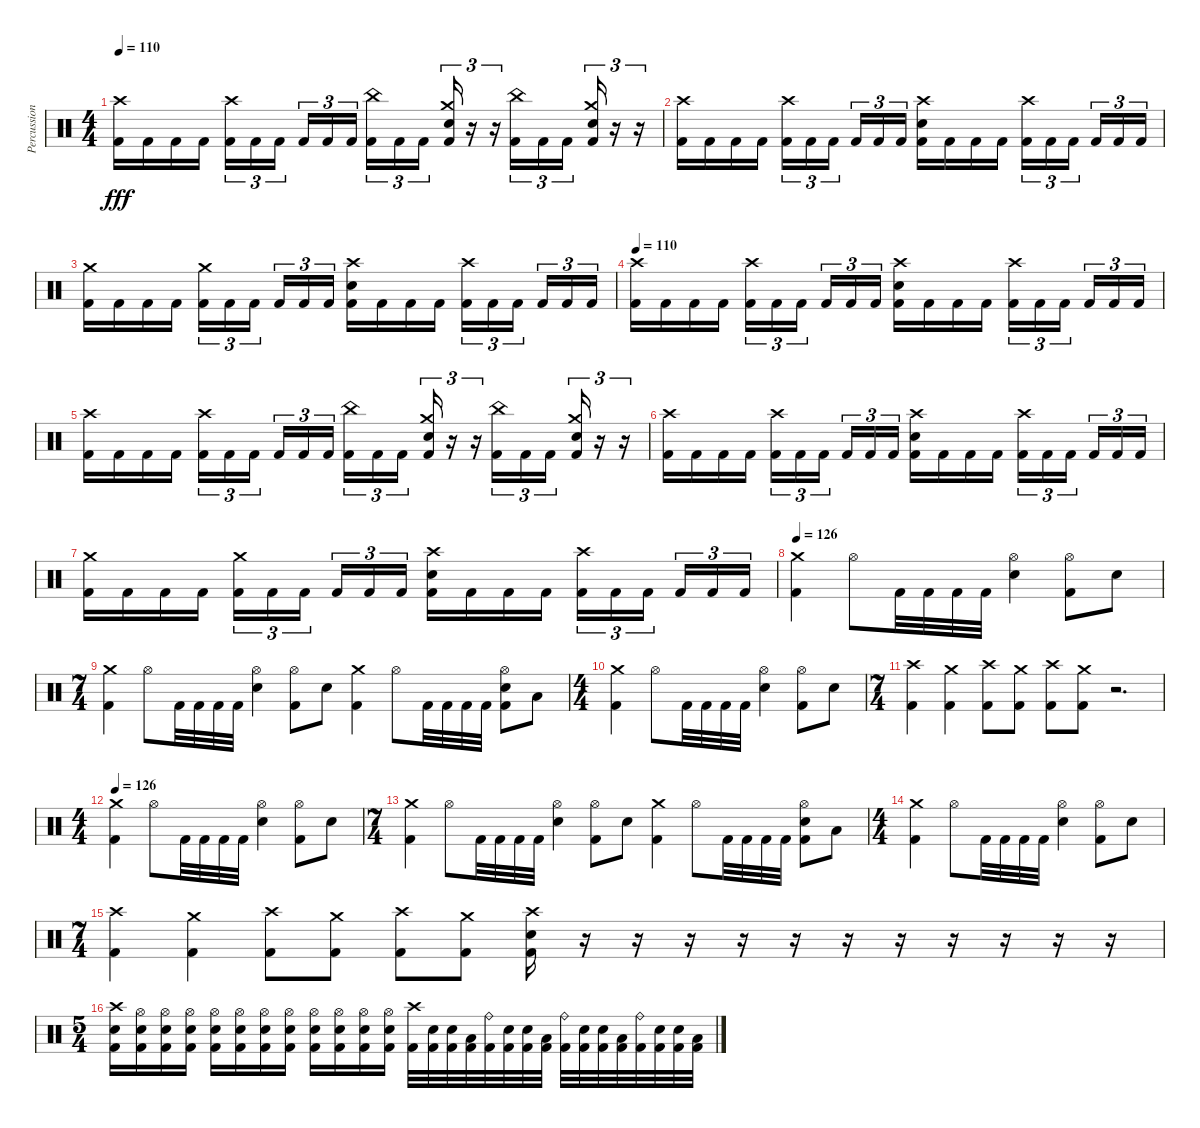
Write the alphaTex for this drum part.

\track ("Percussion" "Percussion") {instrument percussion}
\staff {score}
\articulation defaults
\ts (4 4)
\tempo 110
\clef neutral
\ks c
("Crash high (hit)" "Kick (hit) 2").16{dy fff} "Kick (hit) 2".16 "Kick (hit) 2".16 "Kick (hit) 2".16 ("Crash high (hit)" "Kick (hit) 2").16{tu (3 2)} "Kick (hit) 2".16{tu (3 2)} "Kick (hit) 2".16{tu (3 2) beam splitsecondary} "Kick (hit) 2".16{tu (3 2)} "Kick (hit) 2".16{tu (3 2)} "Kick (hit) 2".16{tu (3 2)} ("China (hit)" "Kick (hit) 2").16{tu (3 2)} "Kick (hit) 2".16{tu (3 2)} "Kick (hit) 2".16{tu (3 2) beam splitsecondary} ("Crash medium (hit)" "Electric Snare (hit)" "Kick (hit) 2").16{tu (3 2)} r.16{tu (3 2)} r.16{tu (3 2)} ("China (hit)" "Kick (hit) 2").16{tu (3 2)} "Kick (hit) 2".16{tu (3 2)} "Kick (hit) 2".16{tu (3 2) beam splitsecondary} ("Crash medium (hit)" "Electric Snare (hit)" "Kick (hit) 2").16{tu (3 2)} r.16{tu (3 2)} r.16{tu (3 2)} |
("Crash high (hit)" "Kick (hit) 2").16 "Kick (hit) 2".16 "Kick (hit) 2".16 "Kick (hit) 2".16 ("Crash high (hit)" "Kick (hit) 2").16{tu (3 2)} "Kick (hit) 2".16{tu (3 2)} "Kick (hit) 2".16{tu (3 2) beam splitsecondary} "Kick (hit) 2".16{tu (3 2)} "Kick (hit) 2".16{tu (3 2)} "Kick (hit) 2".16{tu (3 2)} ("Crash high (hit)" "Electric Snare (hit)" "Kick (hit) 2").16 "Kick (hit) 2".16 "Kick (hit) 2".16 "Kick (hit) 2".16 ("Crash high (hit)" "Kick (hit) 2").16{tu (3 2)} "Kick (hit) 2".16{tu (3 2)} "Kick (hit) 2".16{tu (3 2) beam splitsecondary} "Kick (hit) 2".16{tu (3 2)} "Kick (hit) 2".16{tu (3 2)} "Kick (hit) 2".16{tu (3 2)} |
("Crash medium (hit)" "Kick (hit) 2").16 "Kick (hit) 2".16 "Kick (hit) 2".16 "Kick (hit) 2".16 ("Crash medium (hit)" "Kick (hit) 2").16{tu (3 2)} "Kick (hit) 2".16{tu (3 2)} "Kick (hit) 2".16{tu (3 2) beam splitsecondary} "Kick (hit) 2".16{tu (3 2)} "Kick (hit) 2".16{tu (3 2)} "Kick (hit) 2".16{tu (3 2)} ("Crash high (hit)" "Electric Snare (hit)" "Kick (hit) 2").16 "Kick (hit) 2".16 "Kick (hit) 2".16 "Kick (hit) 2".16 ("Crash high (hit)" "Kick (hit) 2").16{tu (3 2)} "Kick (hit) 2".16{tu (3 2)} "Kick (hit) 2".16{tu (3 2) beam splitsecondary} "Kick (hit) 2".16{tu (3 2)} "Kick (hit) 2".16{tu (3 2)} "Kick (hit) 2".16{tu (3 2)} |
\tempo 110
("Crash high (hit)" "Kick (hit) 2").16 "Kick (hit) 2".16 "Kick (hit) 2".16 "Kick (hit) 2".16 ("Crash high (hit)" "Kick (hit) 2").16{tu (3 2)} "Kick (hit) 2".16{tu (3 2)} "Kick (hit) 2".16{tu (3 2) beam splitsecondary} "Kick (hit) 2".16{tu (3 2)} "Kick (hit) 2".16{tu (3 2)} "Kick (hit) 2".16{tu (3 2)} ("Crash high (hit)" "Electric Snare (hit)" "Kick (hit) 2").16 "Kick (hit) 2".16 "Kick (hit) 2".16 "Kick (hit) 2".16 ("Crash high (hit)" "Kick (hit) 2").16{tu (3 2)} "Kick (hit) 2".16{tu (3 2)} "Kick (hit) 2".16{tu (3 2) beam splitsecondary} "Kick (hit) 2".16{tu (3 2)} "Kick (hit) 2".16{tu (3 2)} "Kick (hit) 2".16{tu (3 2)} |
("Crash high (hit)" "Kick (hit) 2").16 "Kick (hit) 2".16 "Kick (hit) 2".16 "Kick (hit) 2".16 ("Crash high (hit)" "Kick (hit) 2").16{tu (3 2)} "Kick (hit) 2".16{tu (3 2)} "Kick (hit) 2".16{tu (3 2) beam splitsecondary} "Kick (hit) 2".16{tu (3 2)} "Kick (hit) 2".16{tu (3 2)} "Kick (hit) 2".16{tu (3 2)} ("China (hit)" "Kick (hit) 2").16{tu (3 2)} "Kick (hit) 2".16{tu (3 2)} "Kick (hit) 2".16{tu (3 2) beam splitsecondary} ("Crash medium (hit)" "Electric Snare (hit)" "Kick (hit) 2").16{tu (3 2)} r.16{tu (3 2)} r.16{tu (3 2)} ("China (hit)" "Kick (hit) 2").16{tu (3 2)} "Kick (hit) 2".16{tu (3 2)} "Kick (hit) 2".16{tu (3 2) beam splitsecondary} ("Crash medium (hit)" "Electric Snare (hit)" "Kick (hit) 2").16{tu (3 2)} r.16{tu (3 2)} r.16{tu (3 2)} |
("Crash high (hit)" "Kick (hit) 2").16 "Kick (hit) 2".16 "Kick (hit) 2".16 "Kick (hit) 2".16 ("Crash high (hit)" "Kick (hit) 2").16{tu (3 2)} "Kick (hit) 2".16{tu (3 2)} "Kick (hit) 2".16{tu (3 2) beam splitsecondary} "Kick (hit) 2".16{tu (3 2)} "Kick (hit) 2".16{tu (3 2)} "Kick (hit) 2".16{tu (3 2)} ("Crash high (hit)" "Electric Snare (hit)" "Kick (hit) 2").16 "Kick (hit) 2".16 "Kick (hit) 2".16 "Kick (hit) 2".16 ("Crash high (hit)" "Kick (hit) 2").16{tu (3 2)} "Kick (hit) 2".16{tu (3 2)} "Kick (hit) 2".16{tu (3 2) beam splitsecondary} "Kick (hit) 2".16{tu (3 2)} "Kick (hit) 2".16{tu (3 2)} "Kick (hit) 2".16{tu (3 2)} |
("Crash medium (hit)" "Kick (hit) 2").16 "Kick (hit) 2".16 "Kick (hit) 2".16 "Kick (hit) 2".16 ("Crash medium (hit)" "Kick (hit) 2").16{tu (3 2)} "Kick (hit) 2".16{tu (3 2)} "Kick (hit) 2".16{tu (3 2) beam splitsecondary} "Kick (hit) 2".16{tu (3 2)} "Kick (hit) 2".16{tu (3 2)} "Kick (hit) 2".16{tu (3 2)} ("Crash high (hit)" "Electric Snare (hit)" "Kick (hit) 2").16 "Kick (hit) 2".16 "Kick (hit) 2".16 "Kick (hit) 2".16 ("Crash high (hit)" "Kick (hit) 2").16{tu (3 2)} "Kick (hit) 2".16{tu (3 2)} "Kick (hit) 2".16{tu (3 2) beam splitsecondary} "Kick (hit) 2".16{tu (3 2)} "Kick (hit) 2".16{tu (3 2)} "Kick (hit) 2".16{tu (3 2)} |
\tempo 126
("Kick (hit) 2" "Crash medium (hit)").4 "Hi-Hat (open)".8 "Kick (hit) 2".32 "Kick (hit) 2".32 "Kick (hit) 2".32 "Kick (hit) 2".32 ("Electric Snare (hit)" "Hi-Hat (open)").4 ("Kick (hit) 2" "Hi-Hat (open)").8 "Electric Snare (hit)".8 |
\ts (7 4)
("Kick (hit) 2" "Crash medium (hit)").4 "Hi-Hat (open)".8 "Kick (hit) 2".32 "Kick (hit) 2".32 "Kick (hit) 2".32 "Kick (hit) 2".32 ("Electric Snare (hit)" "Hi-Hat (open)").4 ("Kick (hit) 2" "Hi-Hat (open)").8 "Electric Snare (hit)".8 ("Kick (hit) 2" "Crash medium (hit)").4 "Hi-Hat (open)".8 "Kick (hit) 2".32 "Kick (hit) 2".32 "Kick (hit) 2".32 "Kick (hit) 2".32 ("Kick (hit) 2" "Electric Snare (hit)" "Hi-Hat (open)").8 "Low Tom (hit)".8 |
\ts (4 4)
("Kick (hit) 2" "Crash medium (hit)").4 "Hi-Hat (open)".8 "Kick (hit) 2".32 "Kick (hit) 2".32 "Kick (hit) 2".32 "Kick (hit) 2".32 ("Electric Snare (hit)" "Hi-Hat (open)").4 ("Kick (hit) 2" "Hi-Hat (open)").8 "Electric Snare (hit)".8 |
\ts (7 4)
("Crash high (hit)" "Kick (hit) 2").4 ("Crash medium (hit)" "Kick (hit) 2").4 ("Crash high (hit)" "Kick (hit) 2").8 ("Crash medium (hit)" "Kick (hit) 2").8 ("Crash high (hit)" "Kick (hit) 2").8 ("Crash medium (hit)" "Kick (hit) 2").8 r.2{d} |
\ts (4 4)
\tempo 126
("Kick (hit) 2" "Crash medium (hit)").4 "Hi-Hat (open)".8 "Kick (hit) 2".32 "Kick (hit) 2".32 "Kick (hit) 2".32 "Kick (hit) 2".32 ("Electric Snare (hit)" "Hi-Hat (open)").4 ("Kick (hit) 2" "Hi-Hat (open)").8 "Electric Snare (hit)".8 |
\ts (7 4)
("Kick (hit) 2" "Crash medium (hit)").4 "Hi-Hat (open)".8 "Kick (hit) 2".32 "Kick (hit) 2".32 "Kick (hit) 2".32 "Kick (hit) 2".32 ("Electric Snare (hit)" "Hi-Hat (open)").4 ("Kick (hit) 2" "Hi-Hat (open)").8 "Electric Snare (hit)".8 ("Kick (hit) 2" "Crash medium (hit)").4 "Hi-Hat (open)".8 "Kick (hit) 2".32 "Kick (hit) 2".32 "Kick (hit) 2".32 "Kick (hit) 2".32 ("Kick (hit) 2" "Electric Snare (hit)" "Hi-Hat (open)").8 "Low Tom (hit)".8 |
\ts (4 4)
("Kick (hit) 2" "Crash medium (hit)").4 "Hi-Hat (open)".8 "Kick (hit) 2".32 "Kick (hit) 2".32 "Kick (hit) 2".32 "Kick (hit) 2".32 ("Electric Snare (hit)" "Hi-Hat (open)").4 ("Kick (hit) 2" "Hi-Hat (open)").8 "Electric Snare (hit)".8 |
\ts (7 4)
("Crash high (hit)" "Kick (hit) 2").4 ("Crash medium (hit)" "Kick (hit) 2").4 ("Crash high (hit)" "Kick (hit) 2").8 ("Crash medium (hit)" "Kick (hit) 2").8 ("Crash high (hit)" "Kick (hit) 2").8 ("Crash medium (hit)" "Kick (hit) 2").8 ("Electric Snare (hit)" "Crash high (hit)" "Kick (hit) 2").16 r.16 r.16 r.16 r.16 r.16 r.16 r.16 r.16 r.16 r.16 r.16 |
\ts (5 4)
("Electric Snare (hit)" "Crash high (hit)" "Kick (hit) 2").16 ("Electric Snare (hit)" "Hi-Hat (open)" "Kick (hit) 2").16 ("Electric Snare (hit)" "Hi-Hat (open)" "Kick (hit) 2").16 ("Electric Snare (hit)" "Hi-Hat (open)" "Kick (hit) 2").16 ("Electric Snare (hit)" "Hi-Hat (open)" "Kick (hit) 2").16 ("Electric Snare (hit)" "Hi-Hat (open)" "Kick (hit) 2").16 ("Electric Snare (hit)" "Hi-Hat (open)" "Kick (hit) 2").16 ("Electric Snare (hit)" "Hi-Hat (open)" "Kick (hit) 2").16 ("Electric Snare (hit)" "Hi-Hat (open)" "Kick (hit) 2").16 ("Electric Snare (hit)" "Hi-Hat (open)" "Kick (hit) 2").16 ("Electric Snare (hit)" "Hi-Hat (open)" "Kick (hit) 2").16 ("Electric Snare (hit)" "Hi-Hat (open)" "Kick (hit) 2").16 ("Crash high (hit)" "Kick (hit) 2").32 ("Electric Snare (hit)" "Kick (hit) 2").32 ("Electric Snare (hit)" "Kick (hit) 2").32 ("Low Tom (hit)" "Kick (hit) 2").32 ("Ride (bell)" "Kick (hit) 2").32 ("Electric Snare (hit)" "Kick (hit) 2").32 ("Electric Snare (hit)" "Kick (hit) 2").32 ("Low Tom (hit)" "Kick (hit) 2").32 ("Ride (bell)" "Kick (hit) 2").32 ("Electric Snare (hit)" "Kick (hit) 2").32 ("Electric Snare (hit)" "Kick (hit) 2").32 ("Low Tom (hit)" "Kick (hit) 2").32 ("Ride (bell)" "Kick (hit) 2").32 ("Electric Snare (hit)" "Kick (hit) 2").32 ("Electric Snare (hit)" "Kick (hit) 2").32 ("Low Tom (hit)" "Kick (hit) 2").32
